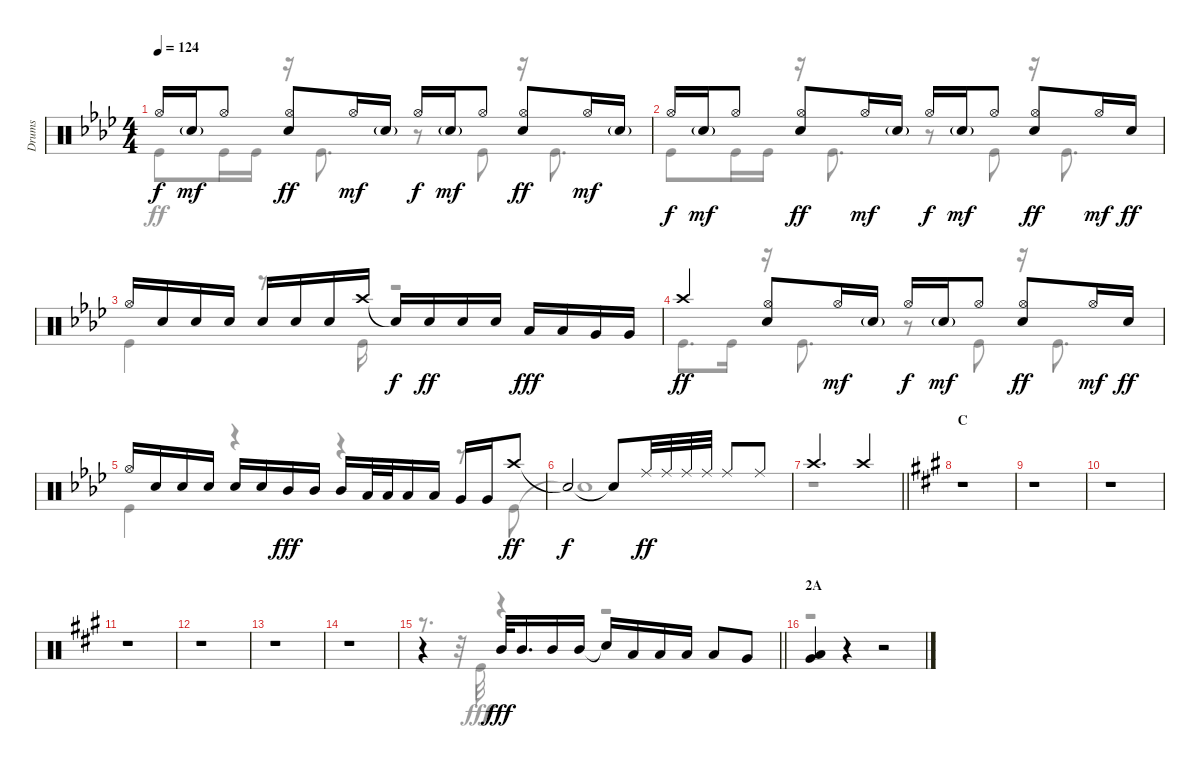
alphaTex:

\track ("Drums" "Drums") {solo instrument percussion}
\staff {score}
\articulation defaults
\voice
\ts (4 4)
\tempo 124
\clef neutral
\ks ab "Hi-Hat (open)".16{dy f} "Electric Snare (hit)"{g}.16{dy mf} "Hi-Hat (open)".8
("Hi-Hat (open)" "Electric Snare (hit)").8{dy ff} "Hi-Hat (open)".16{dy mf} "Electric Snare (hit)"{g}.16 "Hi-Hat (open)".16{dy f} "Electric Snare (hit)"{g}.16{dy mf} "Hi-Hat (open)".8 ("Hi-Hat (open)" "Electric Snare (hit)").8{dy ff} "Hi-Hat (open)".16{dy mf} "Electric Snare (hit)"{g}.16 |
"Hi-Hat (open)".16{dy f} "Electric Snare (hit)"{g}.16{dy mf} "Hi-Hat (open)".8 ("Hi-Hat (open)" "Electric Snare (hit)").8{dy ff} "Hi-Hat (open)".16{dy mf} "Electric Snare (hit)"{g}.16 "Hi-Hat (open)".16{dy f} "Electric Snare (hit)"{g}.16{dy mf} "Hi-Hat (open)".8 ("Hi-Hat (open)" "Electric Snare (hit)").8{dy ff} "Hi-Hat (open)".16{dy mf} "Electric Snare (hit)".16{dy ff} |
"Hi-Hat (open)".16 "Electric Snare (hit)".16 "Electric Snare (hit)".16 "Electric Snare (hit)".16 "Electric Snare (hit)".16 "Electric Snare (hit)".16 "Electric Snare (hit)".16 "Crash high (hit)".16 "Snare (hit)"{t}.16{dy f} "Electric Snare (hit)".16{dy ff} "Electric Snare (hit)".16 "Electric Snare (hit)".16 "Low Tom (hit)".16{dy fff} "Low Tom (hit)".16 "Very Low Tom (hit)".16 "Very Low Tom (hit)".16 |
"Crash high (hit)".4{dy ff} ("Hi-Hat (open)" "Electric Snare (hit)").8 "Hi-Hat (open)".16{dy mf} "Electric Snare (hit)"{g}.16 "Hi-Hat (open)".16{dy f} "Electric Snare (hit)"{g}.16{dy mf} "Hi-Hat (open)".8 ("Hi-Hat (open)" "Electric Snare (hit)").8{dy ff} "Hi-Hat (open)".16{dy mf} "Electric Snare (hit)".16{dy ff} |
"Hi-Hat (open)".16 "Electric Snare (hit)".16 "Electric Snare (hit)".16 "Electric Snare (hit)".16 "Electric Snare (hit)".16 "Electric Snare (hit)".16 "Mid Tom (hit)".16{dy fff} "Mid Tom (hit)".16 "Mid Tom (hit)".16 "Low Tom (hit)".32 "Low Tom (hit)".32{beam splitsecondary} "Low Tom (hit)".16 "Low Tom (hit)".16 "Very Low Tom (hit)".16 "Very Low Tom (hit)".16 "Crash high (hit)".8{dy ff} |
"Snare (hit)"{t}.2{dy f} "Snare (hit)"{t}.8 "Ride (middle)".32{dy ff} "Ride (middle)".32 "Ride (middle)".32 "Ride (middle)".32 "Ride (middle)".8 "Ride (middle)".8 |
\barLineRight lightlight "Crash high (hit)".2{d} "Crash high (hit)".4
|
\section ("" "C")
\ks a
r.1 |
r.1 |
r.1 |
r.1 |
r.1 |
r.1 |
r.1 |
\barLineRight lightlight
r.4 "Mid Tom (hit)".32{dy fff} "Mid Tom (hit)".16{d} "Mid Tom (hit)".16 "Mid Tom (hit)".16 "Snare (hit)"{t}.16 "Low Tom (hit)".16 "Low Tom (hit)".16 "Low Tom (hit)".16 "Low Tom (hit)".8 "Very Low Tom (hit)".8 |
\section ("" "2A")
("Low Tom (hit)" "Very Low Tom (hit)").4 r.4 r.2
\voice
\clef neutral
\ottava regular
\simile none
\ks ab "Kick (hit)".8{dy ff} "Kick (hit)".16 "Kick (hit)".16
r.16 "Kick (hit)".8{d} r.8 "Kick (hit)".8 r.16 "Kick (hit)".8{d} |
"Kick (hit)".8 "Kick (hit)".16 "Kick (hit)".16 r.16 "Kick (hit)".8{d} r.8 "Kick (hit)".8 r.16 "Kick (hit)".8{d} |
"Kick (hit)".4 r.8{d} "Kick (hit)".16 r.2 |
"Kick (hit)".8{d} "Kick (hit)".16 r.16 "Kick (hit)".8{d} r.8 "Kick (hit)".8 r.16 "Kick (hit)".8{d} |
"Kick (hit)".4 r.4 r.4 r.8 "Kick (hit)".8 |
"Snare (hit)"{t}.1{dy f} |
\barLineRight lightlight
r.1 |
\ks a
|
|
|
|
|
|
|
\barLineRight lightlight
r.8{d} r.32 "Kick (hit)".32{dy fff} r.4 r.2 |
r.1
